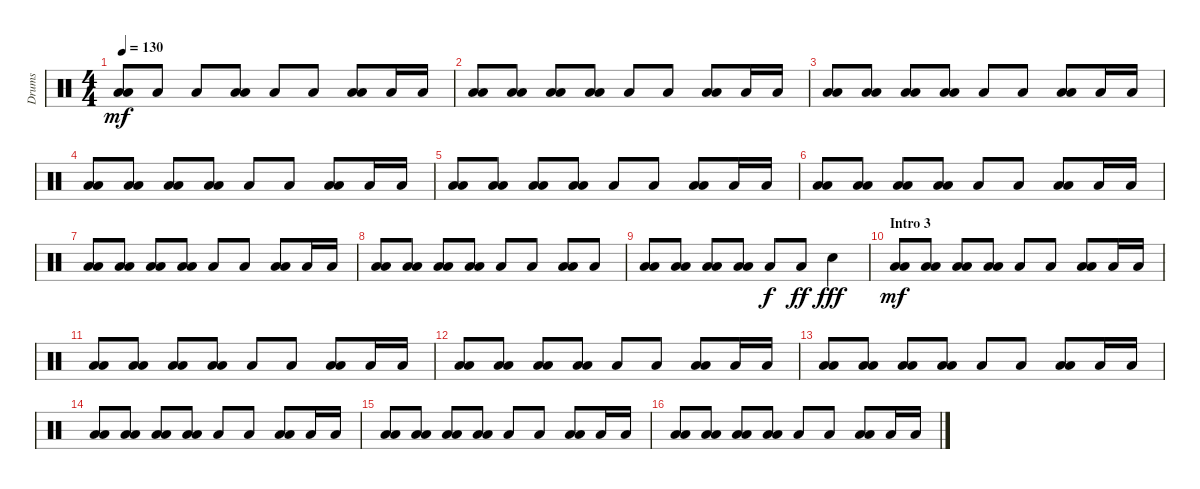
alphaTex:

\track ("Drums" "Drums") {instrument percussion}
\staff {score}
\articulation defaults
\ts (4 4)
\tempo 130
\clef neutral
\ks c
("Low Tom (hit)" "Low Tom (hit)").8{dy mf} "Low Tom (hit)".8 "Low Tom (hit)".8 ("Low Tom (hit)" "Low Tom (hit)").8 "Low Tom (hit)".8 "Low Tom (hit)".8 ("Low Tom (hit)" "Low Tom (hit)").8 "Low Tom (hit)".16 "Low Tom (hit)".16 |
("Low Tom (hit)" "Low Tom (hit)").8 ("Low Tom (hit)" "Low Tom (hit)").8 ("Low Tom (hit)" "Low Tom (hit)").8 ("Low Tom (hit)" "Low Tom (hit)").8 "Low Tom (hit)".8 "Low Tom (hit)".8 ("Low Tom (hit)" "Low Tom (hit)").8 "Low Tom (hit)".16 "Low Tom (hit)".16 |
("Low Tom (hit)" "Low Tom (hit)").8 ("Low Tom (hit)" "Low Tom (hit)").8 ("Low Tom (hit)" "Low Tom (hit)").8 ("Low Tom (hit)" "Low Tom (hit)").8 "Low Tom (hit)".8 "Low Tom (hit)".8 ("Low Tom (hit)" "Low Tom (hit)").8 "Low Tom (hit)".16 "Low Tom (hit)".16 |
("Low Tom (hit)" "Low Tom (hit)").8 ("Low Tom (hit)" "Low Tom (hit)").8 ("Low Tom (hit)" "Low Tom (hit)").8 ("Low Tom (hit)" "Low Tom (hit)").8 "Low Tom (hit)".8 "Low Tom (hit)".8 ("Low Tom (hit)" "Low Tom (hit)").8 "Low Tom (hit)".16 "Low Tom (hit)".16 |
("Low Tom (hit)" "Low Tom (hit)").8 ("Low Tom (hit)" "Low Tom (hit)").8 ("Low Tom (hit)" "Low Tom (hit)").8 ("Low Tom (hit)" "Low Tom (hit)").8 "Low Tom (hit)".8 "Low Tom (hit)".8 ("Low Tom (hit)" "Low Tom (hit)").8 "Low Tom (hit)".16 "Low Tom (hit)".16 |
("Low Tom (hit)" "Low Tom (hit)").8 ("Low Tom (hit)" "Low Tom (hit)").8 ("Low Tom (hit)" "Low Tom (hit)").8 ("Low Tom (hit)" "Low Tom (hit)").8 "Low Tom (hit)".8 "Low Tom (hit)".8 ("Low Tom (hit)" "Low Tom (hit)").8 "Low Tom (hit)".16 "Low Tom (hit)".16 |
("Low Tom (hit)" "Low Tom (hit)").8 ("Low Tom (hit)" "Low Tom (hit)").8 ("Low Tom (hit)" "Low Tom (hit)").8 ("Low Tom (hit)" "Low Tom (hit)").8 "Low Tom (hit)".8 "Low Tom (hit)".8 ("Low Tom (hit)" "Low Tom (hit)").8 "Low Tom (hit)".16 "Low Tom (hit)".16 |
("Low Tom (hit)" "Low Tom (hit)").8 ("Low Tom (hit)" "Low Tom (hit)").8 ("Low Tom (hit)" "Low Tom (hit)").8 ("Low Tom (hit)" "Low Tom (hit)").8 "Low Tom (hit)".8 "Low Tom (hit)".8 ("Low Tom (hit)" "Low Tom (hit)").8 "Low Tom (hit)".8 |
("Low Tom (hit)" "Low Tom (hit)").8 ("Low Tom (hit)" "Low Tom (hit)").8 ("Low Tom (hit)" "Low Tom (hit)").8 ("Low Tom (hit)" "Low Tom (hit)").8 "Low Tom (hit)".8{dy f} "Low Tom (hit)".8{dy ff} "Electric Snare (hit)".4{dy fff} |
\section ("" "Intro 3")
("Low Tom (hit)" "Low Tom (hit)").8{dy mf} ("Low Tom (hit)" "Low Tom (hit)").8 ("Low Tom (hit)" "Low Tom (hit)").8 ("Low Tom (hit)" "Low Tom (hit)").8 "Low Tom (hit)".8 "Low Tom (hit)".8 ("Low Tom (hit)" "Low Tom (hit)").8 "Low Tom (hit)".16 "Low Tom (hit)".16 |
("Low Tom (hit)" "Low Tom (hit)").8 ("Low Tom (hit)" "Low Tom (hit)").8 ("Low Tom (hit)" "Low Tom (hit)").8 ("Low Tom (hit)" "Low Tom (hit)").8 "Low Tom (hit)".8 "Low Tom (hit)".8 ("Low Tom (hit)" "Low Tom (hit)").8 "Low Tom (hit)".16 "Low Tom (hit)".16 |
("Low Tom (hit)" "Low Tom (hit)").8 ("Low Tom (hit)" "Low Tom (hit)").8 ("Low Tom (hit)" "Low Tom (hit)").8 ("Low Tom (hit)" "Low Tom (hit)").8 "Low Tom (hit)".8 "Low Tom (hit)".8 ("Low Tom (hit)" "Low Tom (hit)").8 "Low Tom (hit)".16 "Low Tom (hit)".16 |
("Low Tom (hit)" "Low Tom (hit)").8 ("Low Tom (hit)" "Low Tom (hit)").8 ("Low Tom (hit)" "Low Tom (hit)").8 ("Low Tom (hit)" "Low Tom (hit)").8 "Low Tom (hit)".8 "Low Tom (hit)".8 ("Low Tom (hit)" "Low Tom (hit)").8 "Low Tom (hit)".16 "Low Tom (hit)".16 |
("Low Tom (hit)" "Low Tom (hit)").8 ("Low Tom (hit)" "Low Tom (hit)").8 ("Low Tom (hit)" "Low Tom (hit)").8 ("Low Tom (hit)" "Low Tom (hit)").8 "Low Tom (hit)".8 "Low Tom (hit)".8 ("Low Tom (hit)" "Low Tom (hit)").8 "Low Tom (hit)".16 "Low Tom (hit)".16 |
("Low Tom (hit)" "Low Tom (hit)").8 ("Low Tom (hit)" "Low Tom (hit)").8 ("Low Tom (hit)" "Low Tom (hit)").8 ("Low Tom (hit)" "Low Tom (hit)").8 "Low Tom (hit)".8 "Low Tom (hit)".8 ("Low Tom (hit)" "Low Tom (hit)").8 "Low Tom (hit)".16 "Low Tom (hit)".16 |
("Low Tom (hit)" "Low Tom (hit)").8 ("Low Tom (hit)" "Low Tom (hit)").8 ("Low Tom (hit)" "Low Tom (hit)").8 ("Low Tom (hit)" "Low Tom (hit)").8 "Low Tom (hit)".8 "Low Tom (hit)".8 ("Low Tom (hit)" "Low Tom (hit)").8 "Low Tom (hit)".16 "Low Tom (hit)".16
